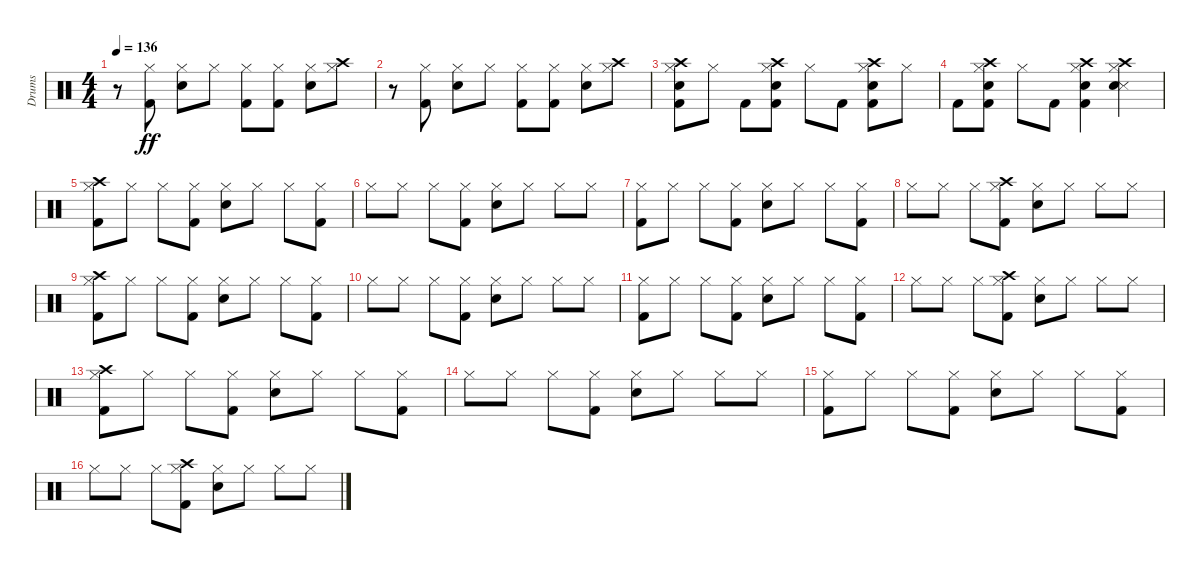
\track ("Drums" "Drums") {instrument percussion}
\staff {score}
\articulation defaults
\ts (4 4)
\tempo 136
\clef neutral
\ks c
r.8{dy ff} ("Kick (hit) 2" "Hi-Hat (closed)").8 ("Snare (hit) 2" "Hi-Hat (closed)").8 "Hi-Hat (closed)".8 ("Kick (hit) 2" "Hi-Hat (closed)").8 ("Kick (hit) 2" "Hi-Hat (closed)").8 ("Snare (hit) 2" "Hi-Hat (closed)").8 ("Hi-Hat (closed)" "Crash high (hit)").8 |
r.8 ("Kick (hit) 2" "Hi-Hat (closed)").8 ("Snare (hit) 2" "Hi-Hat (closed)").8 "Hi-Hat (closed)".8 ("Kick (hit) 2" "Hi-Hat (closed)").8 ("Kick (hit) 2" "Hi-Hat (closed)").8 ("Snare (hit) 2" "Hi-Hat (closed)").8 ("Hi-Hat (closed)" "Crash high (hit)").8 |
("Kick (hit) 2" "Snare (hit) 2" "Hi-Hat (closed)" "Crash high (hit)").8 "Hi-Hat (closed)".8 "Kick (hit) 2".8 ("Kick (hit) 2" "Snare (hit) 2" "Hi-Hat (closed)" "Crash high (hit)").8 "Hi-Hat (closed)".8 "Kick (hit) 2".8 ("Kick (hit) 2" "Snare (hit) 2" "Hi-Hat (closed)" "Crash high (hit)").8 "Hi-Hat (closed)".8 |
"Kick (hit) 2".8 ("Kick (hit) 2" "Snare (hit) 2" "Hi-Hat (closed)" "Crash high (hit)").8 "Hi-Hat (closed)".8 "Kick (hit) 2".8 ("Kick (hit) 2" "Snare (hit) 2" "Hi-Hat (closed)" "Crash high (hit)").4 ("Snare (side stick) 3" "Snare (hit) 2" "Hi-Hat (closed)" "Crash high (hit)").4 |
("Kick (hit) 2" "Hi-Hat (closed)" "Crash high (hit)").8 "Hi-Hat (closed)".8 "Hi-Hat (closed)".8 ("Kick (hit) 2" "Hi-Hat (closed)").8 ("Snare (hit) 2" "Hi-Hat (closed)").8 "Hi-Hat (closed)".8 "Hi-Hat (closed)".8 ("Kick (hit) 2" "Hi-Hat (closed)").8 |
"Hi-Hat (closed)".8 "Hi-Hat (closed)".8 "Hi-Hat (closed)".8 ("Kick (hit) 2" "Hi-Hat (closed)").8 ("Snare (hit) 2" "Hi-Hat (closed)").8 "Hi-Hat (closed)".8 "Hi-Hat (closed)".8 "Hi-Hat (closed)".8 |
("Kick (hit) 2" "Hi-Hat (closed)").8 "Hi-Hat (closed)".8 "Hi-Hat (closed)".8 ("Kick (hit) 2" "Hi-Hat (closed)").8 ("Snare (hit) 2" "Hi-Hat (closed)").8 "Hi-Hat (closed)".8 "Hi-Hat (closed)".8 ("Kick (hit) 2" "Hi-Hat (closed)").8 |
"Hi-Hat (closed)".8 "Hi-Hat (closed)".8 "Hi-Hat (closed)".8 ("Kick (hit) 2" "Hi-Hat (closed)" "Crash high (hit)").8 ("Snare (hit) 2" "Hi-Hat (closed)").8 "Hi-Hat (closed)".8 "Hi-Hat (closed)".8 "Hi-Hat (closed)".8 |
("Kick (hit) 2" "Hi-Hat (closed)" "Crash high (hit)").8 "Hi-Hat (closed)".8 "Hi-Hat (closed)".8 ("Kick (hit) 2" "Hi-Hat (closed)").8 ("Snare (hit) 2" "Hi-Hat (closed)").8 "Hi-Hat (closed)".8 "Hi-Hat (closed)".8 ("Kick (hit) 2" "Hi-Hat (closed)").8 |
"Hi-Hat (closed)".8 "Hi-Hat (closed)".8 "Hi-Hat (closed)".8 ("Kick (hit) 2" "Hi-Hat (closed)").8 ("Snare (hit) 2" "Hi-Hat (closed)").8 "Hi-Hat (closed)".8 "Hi-Hat (closed)".8 "Hi-Hat (closed)".8 |
("Kick (hit) 2" "Hi-Hat (closed)").8 "Hi-Hat (closed)".8 "Hi-Hat (closed)".8 ("Kick (hit) 2" "Hi-Hat (closed)").8 ("Snare (hit) 2" "Hi-Hat (closed)").8 "Hi-Hat (closed)".8 "Hi-Hat (closed)".8 ("Kick (hit) 2" "Hi-Hat (closed)").8 |
"Hi-Hat (closed)".8 "Hi-Hat (closed)".8 "Hi-Hat (closed)".8 ("Kick (hit) 2" "Hi-Hat (closed)" "Crash high (hit)").8 ("Snare (hit) 2" "Hi-Hat (closed)").8 "Hi-Hat (closed)".8 "Hi-Hat (closed)".8 "Hi-Hat (closed)".8 |
("Kick (hit) 2" "Hi-Hat (closed)" "Crash high (hit)").8 "Hi-Hat (closed)".8 "Hi-Hat (closed)".8 ("Kick (hit) 2" "Hi-Hat (closed)").8 ("Snare (hit) 2" "Hi-Hat (closed)").8 "Hi-Hat (closed)".8 "Hi-Hat (closed)".8 ("Kick (hit) 2" "Hi-Hat (closed)").8 |
"Hi-Hat (closed)".8 "Hi-Hat (closed)".8 "Hi-Hat (closed)".8 ("Kick (hit) 2" "Hi-Hat (closed)").8 ("Snare (hit) 2" "Hi-Hat (closed)").8 "Hi-Hat (closed)".8 "Hi-Hat (closed)".8 "Hi-Hat (closed)".8 |
("Kick (hit) 2" "Hi-Hat (closed)").8 "Hi-Hat (closed)".8 "Hi-Hat (closed)".8 ("Kick (hit) 2" "Hi-Hat (closed)").8 ("Snare (hit) 2" "Hi-Hat (closed)").8 "Hi-Hat (closed)".8 "Hi-Hat (closed)".8 ("Kick (hit) 2" "Hi-Hat (closed)").8 |
"Hi-Hat (closed)".8 "Hi-Hat (closed)".8 "Hi-Hat (closed)".8 ("Kick (hit) 2" "Hi-Hat (closed)" "Crash high (hit)").8 ("Snare (hit) 2" "Hi-Hat (closed)").8 "Hi-Hat (closed)".8 "Hi-Hat (closed)".8 "Hi-Hat (closed)".8
